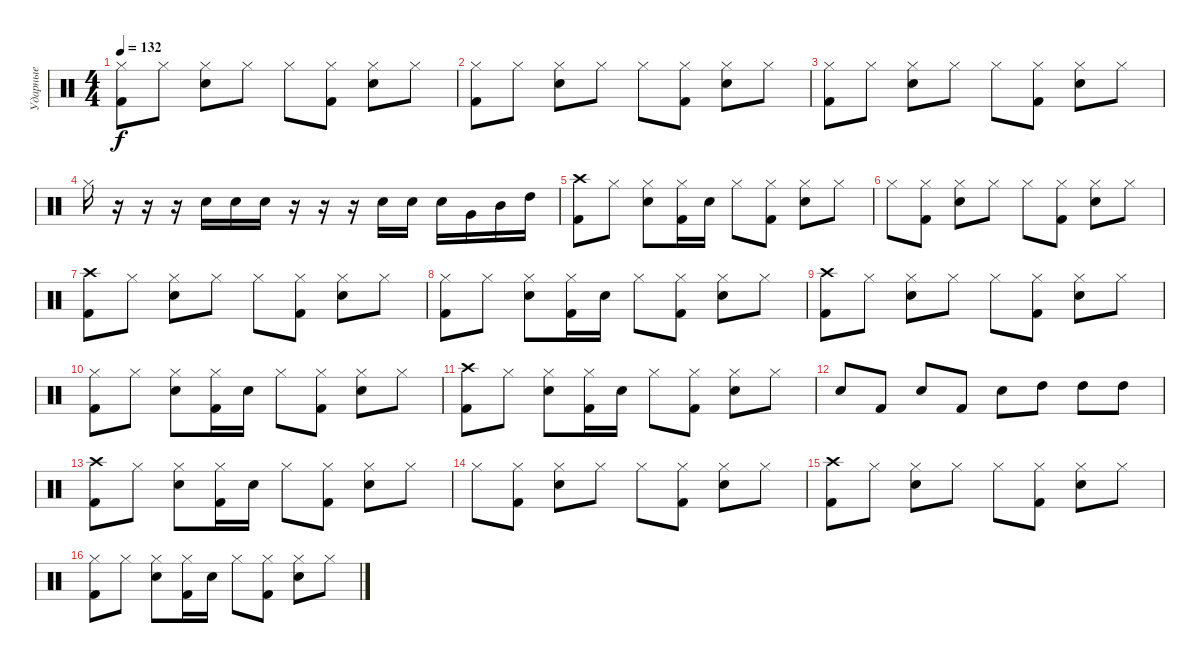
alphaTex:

\track ("Ударные" "Ударные") {instrument percussion}
\staff {score}
\articulation defaults
\ts (4 4)
\tempo 132
\clef neutral
\ks c
("Kick (hit) 2" "Hi-Hat (closed)").8{dy f} "Hi-Hat (closed)".8 ("Electric Snare (hit)" "Hi-Hat (closed)").8 "Hi-Hat (closed)".8 "Hi-Hat (closed)".8 ("Kick (hit) 2" "Hi-Hat (closed)").8 ("Electric Snare (hit)" "Hi-Hat (closed)").8 "Hi-Hat (closed)".8 |
("Kick (hit) 2" "Hi-Hat (closed)").8 "Hi-Hat (closed)".8 ("Electric Snare (hit)" "Hi-Hat (closed)").8 "Hi-Hat (closed)".8 "Hi-Hat (closed)".8 ("Kick (hit) 2" "Hi-Hat (closed)").8 ("Electric Snare (hit)" "Hi-Hat (closed)").8 "Hi-Hat (closed)".8 |
("Kick (hit) 2" "Hi-Hat (closed)").8 "Hi-Hat (closed)".8 ("Electric Snare (hit)" "Hi-Hat (closed)").8 "Hi-Hat (closed)".8 "Hi-Hat (closed)".8 ("Kick (hit) 2" "Hi-Hat (closed)").8 ("Electric Snare (hit)" "Hi-Hat (closed)").8 "Hi-Hat (closed)".8 |
"Hi-Hat (closed)".16 r.16 r.16 r.16 "Electric Snare (hit)".16 "Electric Snare (hit)".16 "Electric Snare (hit)".16 r.16 r.16 r.16 "Electric Snare (hit)".16 "Electric Snare (hit)".16 "Electric Snare (hit)".16 "Very Low Tom (hit)".16 "Mid Tom (hit)".16 "High Tom (hit)".16 |
("Kick (hit) 2" "Crash high (hit)").8 "Hi-Hat (closed)".8 ("Electric Snare (hit)" "Hi-Hat (closed)").8 ("Kick (hit) 2" "Hi-Hat (closed)").16 "Electric Snare (hit)".16 "Hi-Hat (closed)".8 ("Kick (hit) 2" "Hi-Hat (closed)").8 ("Electric Snare (hit)" "Hi-Hat (closed)").8 "Hi-Hat (closed)".8 |
"Hi-Hat (closed)".8 ("Kick (hit) 2" "Hi-Hat (closed)").8 ("Electric Snare (hit)" "Hi-Hat (closed)").8 "Hi-Hat (closed)".8 "Hi-Hat (closed)".8 ("Kick (hit) 2" "Hi-Hat (closed)").8 ("Electric Snare (hit)" "Hi-Hat (closed)").8 "Hi-Hat (closed)".8 |
("Kick (hit) 2" "Crash high (hit)").8 "Hi-Hat (closed)".8 ("Electric Snare (hit)" "Hi-Hat (closed)").8 "Hi-Hat (closed)".8 "Hi-Hat (closed)".8 ("Kick (hit) 2" "Hi-Hat (closed)").8 ("Electric Snare (hit)" "Hi-Hat (closed)").8 "Hi-Hat (closed)".8 |
("Kick (hit) 2" "Hi-Hat (closed)").8 "Hi-Hat (closed)".8 ("Electric Snare (hit)" "Hi-Hat (closed)").8 ("Kick (hit) 2" "Hi-Hat (closed)").16 "Electric Snare (hit)".16 "Hi-Hat (closed)".8 ("Kick (hit) 2" "Hi-Hat (closed)").8 ("Electric Snare (hit)" "Hi-Hat (closed)").8 "Hi-Hat (closed)".8 |
("Kick (hit) 2" "Crash high (hit)").8 "Hi-Hat (closed)".8 ("Electric Snare (hit)" "Hi-Hat (closed)").8 "Hi-Hat (closed)".8 "Hi-Hat (closed)".8 ("Kick (hit) 2" "Hi-Hat (closed)").8 ("Electric Snare (hit)" "Hi-Hat (closed)").8 "Hi-Hat (closed)".8 |
("Kick (hit) 2" "Hi-Hat (closed)").8 "Hi-Hat (closed)".8 ("Electric Snare (hit)" "Hi-Hat (closed)").8 ("Kick (hit) 2" "Hi-Hat (closed)").16 "Electric Snare (hit)".16 "Hi-Hat (closed)".8 ("Kick (hit) 2" "Hi-Hat (closed)").8 ("Electric Snare (hit)" "Hi-Hat (closed)").8 "Hi-Hat (closed)".8 |
("Kick (hit) 2" "Crash high (hit)").8 "Hi-Hat (closed)".8 ("Electric Snare (hit)" "Hi-Hat (closed)").8 ("Kick (hit) 2" "Hi-Hat (closed)").16 "Electric Snare (hit)".16 "Hi-Hat (closed)".8 ("Kick (hit) 2" "Hi-Hat (closed)").8 ("Electric Snare (hit)" "Hi-Hat (closed)").8 "Hi-Hat (closed)".8 |
"Electric Snare (hit)".8 "Kick (hit) 2".8 "Electric Snare (hit)".8 "Kick (hit) 2".8 "Electric Snare (hit)".8 "High Tom (hit)".8 "High Tom (hit)".8 "High Tom (hit)".8 |
("Kick (hit) 2" "Crash high (hit)").8 "Hi-Hat (closed)".8 ("Electric Snare (hit)" "Hi-Hat (closed)").8 ("Kick (hit) 2" "Hi-Hat (closed)").16 "Electric Snare (hit)".16 "Hi-Hat (closed)".8 ("Kick (hit) 2" "Hi-Hat (closed)").8 ("Electric Snare (hit)" "Hi-Hat (closed)").8 "Hi-Hat (closed)".8 |
"Hi-Hat (closed)".8 ("Kick (hit) 2" "Hi-Hat (closed)").8 ("Electric Snare (hit)" "Hi-Hat (closed)").8 "Hi-Hat (closed)".8 "Hi-Hat (closed)".8 ("Kick (hit) 2" "Hi-Hat (closed)").8 ("Electric Snare (hit)" "Hi-Hat (closed)").8 "Hi-Hat (closed)".8 |
("Kick (hit) 2" "Crash high (hit)").8 "Hi-Hat (closed)".8 ("Electric Snare (hit)" "Hi-Hat (closed)").8 "Hi-Hat (closed)".8 "Hi-Hat (closed)".8 ("Kick (hit) 2" "Hi-Hat (closed)").8 ("Electric Snare (hit)" "Hi-Hat (closed)").8 "Hi-Hat (closed)".8 |
("Kick (hit) 2" "Hi-Hat (closed)").8 "Hi-Hat (closed)".8 ("Electric Snare (hit)" "Hi-Hat (closed)").8 ("Kick (hit) 2" "Hi-Hat (closed)").16 "Electric Snare (hit)".16 "Hi-Hat (closed)".8 ("Kick (hit) 2" "Hi-Hat (closed)").8 ("Electric Snare (hit)" "Hi-Hat (closed)").8 "Hi-Hat (closed)".8
